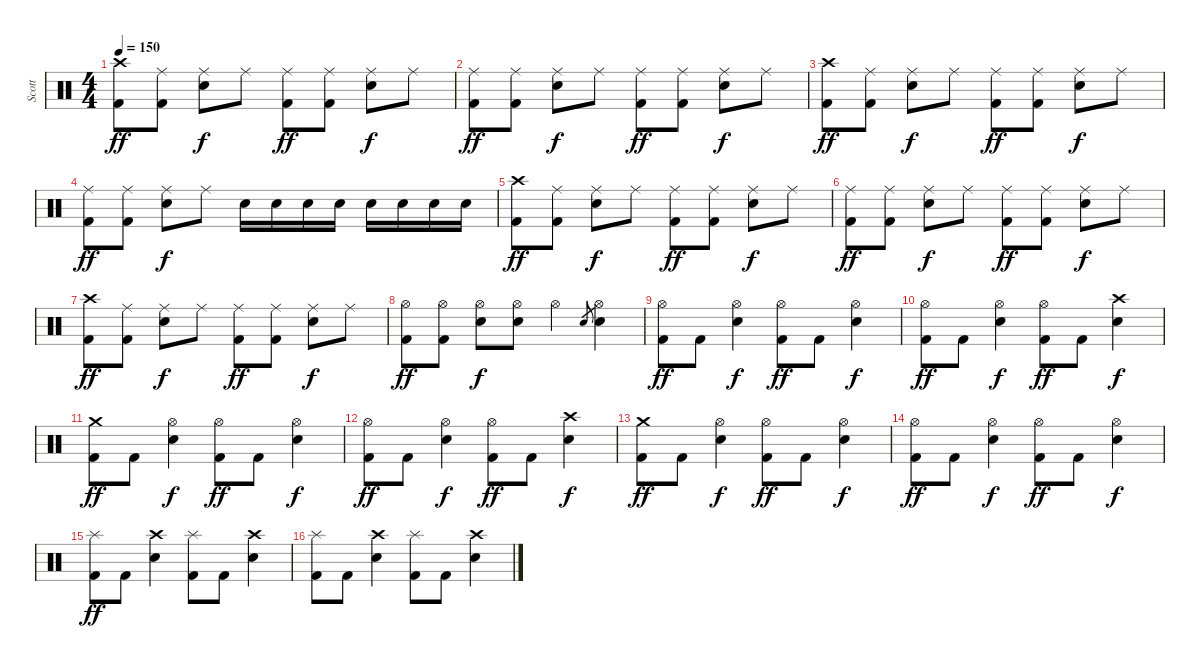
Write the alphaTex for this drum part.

\track ("Scott" "Scott") {solo instrument percussion}
\staff {score}
\articulation defaults
\ts (4 4)
\tempo 150
\clef neutral
\ks c
("Crash high (hit)" "Kick (hit) 2").8{dy ff} ("Kick (hit) 2" "Ride (middle)").8 ("Ride (middle)" "Electric Snare (hit)").8{dy f} "Ride (middle)".8 ("Ride (middle)" "Kick (hit) 2").8{dy ff} ("Kick (hit) 2" "Ride (middle)").8 ("Ride (middle)" "Electric Snare (hit)").8{dy f} "Ride (middle)".8 |
("Ride (middle)" "Kick (hit) 2").8{dy ff} ("Kick (hit) 2" "Ride (middle)").8 ("Ride (middle)" "Electric Snare (hit)").8{dy f} "Ride (middle)".8 ("Ride (middle)" "Kick (hit) 2").8{dy ff} ("Kick (hit) 2" "Ride (middle)").8 ("Ride (middle)" "Electric Snare (hit)").8{dy f} "Ride (middle)".8 |
("Crash high (hit)" "Kick (hit) 2").8{dy ff} ("Kick (hit) 2" "Ride (middle)").8 ("Ride (middle)" "Electric Snare (hit)").8{dy f} "Ride (middle)".8 ("Ride (middle)" "Kick (hit) 2").8{dy ff} ("Kick (hit) 2" "Ride (middle)").8 ("Ride (middle)" "Electric Snare (hit)").8{dy f} "Ride (middle)".8 |
("Ride (middle)" "Kick (hit) 2").8{dy ff} ("Kick (hit) 2" "Ride (middle)").8 ("Ride (middle)" "Electric Snare (hit)").8{dy f} "Ride (middle)".8 "Electric Snare (hit)".16 "Electric Snare (hit)".16 "Electric Snare (hit)".16 "Electric Snare (hit)".16 "Electric Snare (hit)".16 "Electric Snare (hit)".16 "Electric Snare (hit)".16 "Electric Snare (hit)".16 |
("Crash high (hit)" "Kick (hit) 2").8{dy ff} ("Kick (hit) 2" "Ride (middle)").8 ("Ride (middle)" "Electric Snare (hit)").8{dy f} "Ride (middle)".8 ("Ride (middle)" "Kick (hit) 2").8{dy ff} ("Kick (hit) 2" "Ride (middle)").8 ("Ride (middle)" "Electric Snare (hit)").8{dy f} "Ride (middle)".8 |
("Ride (middle)" "Kick (hit) 2").8{dy ff} ("Kick (hit) 2" "Ride (middle)").8 ("Ride (middle)" "Electric Snare (hit)").8{dy f} "Ride (middle)".8 ("Ride (middle)" "Kick (hit) 2").8{dy ff} ("Kick (hit) 2" "Ride (middle)").8 ("Ride (middle)" "Electric Snare (hit)").8{dy f} "Ride (middle)".8 |
("Crash high (hit)" "Kick (hit) 2").8{dy ff} ("Kick (hit) 2" "Ride (middle)").8 ("Ride (middle)" "Electric Snare (hit)").8{dy f} "Ride (middle)".8 ("Ride (middle)" "Kick (hit) 2").8{dy ff} ("Kick (hit) 2" "Ride (middle)").8 ("Ride (middle)" "Electric Snare (hit)").8{dy f} "Ride (middle)".8 |
("Hi-Hat (open)" "Kick (hit) 2").8{dy ff} ("Kick (hit) 2" "Hi-Hat (open)").8 ("Hi-Hat (open)" "Electric Snare (hit)").8{dy f} ("Electric Snare (hit)" "Hi-Hat (open)").8 "Hi-Hat (open)".4 "Electric Snare (hit)".8{gr} ("Hi-Hat (open)" "Electric Snare (hit)").4 |
("Hi-Hat (open)" "Kick (hit) 2").8{dy ff} "Kick (hit) 2".8 ("Hi-Hat (open)" "Electric Snare (hit)").4{dy f} ("Hi-Hat (open)" "Kick (hit) 2").8{dy ff} "Kick (hit) 2".8 ("Hi-Hat (open)" "Electric Snare (hit)").4{dy f} |
("Hi-Hat (open)" "Kick (hit) 2").8{dy ff} "Kick (hit) 2".8 ("Hi-Hat (open)" "Electric Snare (hit)").4{dy f} ("Kick (hit) 2" "Hi-Hat (open)").8{dy ff} "Kick (hit) 2".8 ("Crash high (hit)" "Electric Snare (hit)").4{dy f} |
("Crash medium (hit)" "Kick (hit) 2").8{dy ff} "Kick (hit) 2".8 ("Hi-Hat (open)" "Electric Snare (hit)").4{dy f} ("Hi-Hat (open)" "Kick (hit) 2").8{dy ff} "Kick (hit) 2".8 ("Hi-Hat (open)" "Electric Snare (hit)").4{dy f} |
("Hi-Hat (open)" "Kick (hit) 2").8{dy ff} "Kick (hit) 2".8 ("Hi-Hat (open)" "Electric Snare (hit)").4{dy f} ("Kick (hit) 2" "Hi-Hat (open)").8{dy ff} "Kick (hit) 2".8 ("Crash high (hit)" "Electric Snare (hit)").4{dy f} |
("Crash medium (hit)" "Kick (hit) 2").8{dy ff} "Kick (hit) 2".8 ("Hi-Hat (open)" "Electric Snare (hit)").4{dy f} ("Hi-Hat (open)" "Kick (hit) 2").8{dy ff} "Kick (hit) 2".8 ("Hi-Hat (open)" "Electric Snare (hit)").4{dy f} |
("Hi-Hat (open)" "Kick (hit) 2").8{dy ff} "Kick (hit) 2".8 ("Hi-Hat (open)" "Electric Snare (hit)").4{dy f} ("Hi-Hat (open)" "Kick (hit) 2").8{dy ff} "Kick (hit) 2".8 ("Hi-Hat (open)" "Electric Snare (hit)").4{dy f} |
("Kick (hit) 2" "Splash (hit)").8{dy ff} "Kick (hit) 2".8 ("Crash high (hit)" "Electric Snare (hit)").4 ("Kick (hit) 2" "Splash (hit)").8 "Kick (hit) 2".8 ("Crash high (hit)" "Electric Snare (hit)").4 |
("Kick (hit) 2" "Splash (hit)").8 "Kick (hit) 2".8 ("Crash high (hit)" "Electric Snare (hit)").4 ("Kick (hit) 2" "Splash (hit)").8 "Kick (hit) 2".8 ("Crash high (hit)" "Electric Snare (hit)").4
